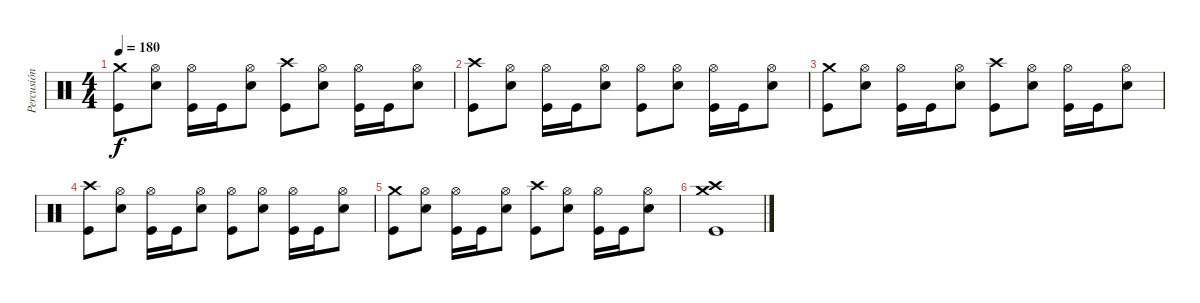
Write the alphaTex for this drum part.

\track ("Percusión" "Percusión") {instrument percussion}
\staff {score}
\articulation defaults
\ts (4 4)
\tempo 180
\clef neutral
\ks c
("Crash medium (hit)" "Kick (hit)").8{dy f} ("Hi-Hat (open)" "Snare (hit) 2").8 ("Hi-Hat (open)" "Kick (hit)").16 "Kick (hit)".16 ("Hi-Hat (open)" "Snare (hit) 2").8 ("Crash high (hit)" "Kick (hit)").8 ("Hi-Hat (open)" "Snare (hit) 2").8 ("Hi-Hat (open)" "Kick (hit)").16 "Kick (hit)".16 ("Hi-Hat (open)" "Snare (hit) 2").8 |
("Crash high (hit)" "Kick (hit)").8 ("Hi-Hat (open)" "Snare (hit) 2").8 ("Hi-Hat (open)" "Kick (hit)").16 "Kick (hit)".16 ("Hi-Hat (open)" "Snare (hit) 2").8 ("Hi-Hat (open)" "Kick (hit)").8 ("Hi-Hat (open)" "Snare (hit) 2").8 ("Hi-Hat (open)" "Kick (hit)").16 "Kick (hit)".16 ("Hi-Hat (open)" "Snare (hit) 2").8 |
("Crash medium (hit)" "Kick (hit)").8 ("Hi-Hat (open)" "Snare (hit) 2").8 ("Hi-Hat (open)" "Kick (hit)").16 "Kick (hit)".16 ("Hi-Hat (open)" "Snare (hit) 2").8 ("Crash high (hit)" "Kick (hit)").8 ("Hi-Hat (open)" "Snare (hit) 2").8 ("Hi-Hat (open)" "Kick (hit)").16 "Kick (hit)".16 ("Hi-Hat (open)" "Snare (hit) 2").8 |
("Crash high (hit)" "Kick (hit)").8 ("Hi-Hat (open)" "Snare (hit) 2").8 ("Hi-Hat (open)" "Kick (hit)").16 "Kick (hit)".16 ("Hi-Hat (open)" "Snare (hit) 2").8 ("Hi-Hat (open)" "Kick (hit)").8 ("Hi-Hat (open)" "Snare (hit) 2").8 ("Hi-Hat (open)" "Kick (hit)").16 "Kick (hit)".16 ("Hi-Hat (open)" "Snare (hit) 2").8 |
("Crash medium (hit)" "Kick (hit)").8 ("Hi-Hat (open)" "Snare (hit) 2").8 ("Hi-Hat (open)" "Kick (hit)").16 "Kick (hit)".16 ("Hi-Hat (open)" "Snare (hit) 2").8 ("Crash high (hit)" "Kick (hit)").8 ("Hi-Hat (open)" "Snare (hit) 2").8 ("Hi-Hat (open)" "Kick (hit)").16 "Kick (hit)".16 ("Hi-Hat (open)" "Snare (hit) 2").8 |
("Crash high (hit)" "Crash medium (hit)" "Kick (hit)").1
